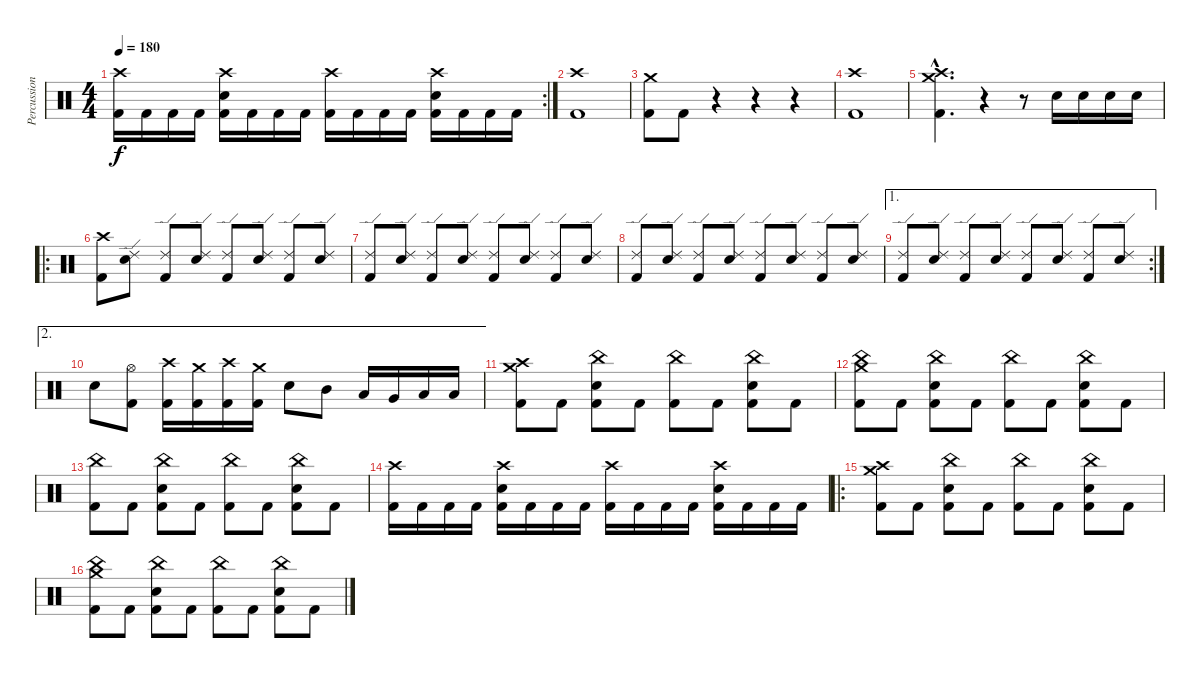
\track ("Percussions" "Percussion") {instrument percussion}
\staff {score}
\articulation defaults
\rc 2
\ts (4 4)
\tempo 180
\clef neutral
\ks c
("Crash high (hit)" "Kick (hit) 2").16{dy f} "Kick (hit) 2".16 "Kick (hit) 2".16 "Kick (hit) 2".16 ("Crash high (hit)" "Snare (hit) 2" "Kick (hit) 2").16 "Kick (hit) 2".16 "Kick (hit) 2".16 "Kick (hit) 2".16 ("Crash high (hit)" "Kick (hit) 2").16 "Kick (hit) 2".16 "Kick (hit) 2".16 "Kick (hit) 2".16 ("Crash high (hit)" "Snare (hit) 2" "Kick (hit) 2").16 "Kick (hit) 2".16 "Kick (hit) 2".16 "Kick (hit) 2".16 |
("Crash high (hit)" "Kick (hit) 2").1 |
("Crash medium (hit)" "Kick (hit) 2").8 "Kick (hit) 2".8 r.4 r.4 r.4 |
("Crash high (hit)" "Kick (hit) 2").1 |
("Crash medium (hit)"{hac} "Crash high (hit)"{hac} "Kick (hit) 2"{hac}).4{d} r.4 r.8 "Snare (hit) 2".16 "Snare (hit) 2".16 "Snare (hit) 2".16 "Snare (hit) 2".16 |
\ro
("Crash high (hit)" "Kick (hit) 2").8 ("Ride (edge) 2" "Snare (hit) 2").8 ("Ride (edge) 2" "Kick (hit) 2").8 ("Ride (edge) 2" "Snare (hit) 2").8 ("Ride (edge) 2" "Kick (hit) 2").8 ("Ride (edge) 2" "Snare (hit) 2").8 ("Ride (edge) 2" "Kick (hit) 2").8 ("Ride (edge) 2" "Snare (hit) 2").8 |
("Ride (edge) 2" "Kick (hit) 2").8 ("Ride (edge) 2" "Snare (hit) 2").8 ("Ride (edge) 2" "Kick (hit) 2").8 ("Ride (edge) 2" "Snare (hit) 2").8 ("Ride (edge) 2" "Kick (hit) 2").8 ("Ride (edge) 2" "Snare (hit) 2").8 ("Ride (edge) 2" "Kick (hit) 2").8 ("Ride (edge) 2" "Snare (hit) 2").8 |
("Ride (edge) 2" "Kick (hit) 2").8 ("Ride (edge) 2" "Snare (hit) 2").8 ("Ride (edge) 2" "Kick (hit) 2").8 ("Ride (edge) 2" "Snare (hit) 2").8 ("Ride (edge) 2" "Kick (hit) 2").8 ("Ride (edge) 2" "Snare (hit) 2").8 ("Ride (edge) 2" "Kick (hit) 2").8 ("Ride (edge) 2" "Snare (hit) 2").8 |
\ae 1
\rc 2
("Ride (edge) 2" "Kick (hit) 2").8 ("Ride (edge) 2" "Snare (hit) 2").8 ("Ride (edge) 2" "Kick (hit) 2").8 ("Ride (edge) 2" "Snare (hit) 2").8 ("Ride (edge) 2" "Kick (hit) 2").8 ("Ride (edge) 2" "Snare (hit) 2").8 ("Ride (edge) 2" "Kick (hit) 2").8 ("Ride (edge) 2" "Snare (hit) 2").8 |
\ae 2 "Snare (hit) 2".8
("Hi-Hat (open)" "Kick (hit) 2").8 ("Crash high (hit)" "Kick (hit) 2").16 ("Crash medium (hit)" "Kick (hit) 2").16 ("Crash high (hit)" "Kick (hit) 2").16 ("Crash medium (hit)" "Kick (hit) 2").16 "Snare (hit) 2".8 "Mid Tom (hit)".8 "Low Tom (hit)".16 "Very Low Tom (hit)".16 "Low Floor Tom (hit)".16 "Low Floor Tom (hit)".16 |
("Crash medium (hit)" "Crash high (hit)" "Kick (hit) 2").8 "Kick (hit) 2".8 ("China (hit)" "Snare (hit) 2" "Kick (hit) 2").8 "Kick (hit) 2".8 ("China (hit)" "Kick (hit) 2").8 "Kick (hit) 2".8 ("China (hit)" "Snare (hit) 2" "Kick (hit) 2").8 "Kick (hit) 2".8 |
("Crash medium (hit)" "China (hit)" "Kick (hit) 2").8 "Kick (hit) 2".8 ("China (hit)" "Snare (hit) 2" "Kick (hit) 2").8 "Kick (hit) 2".8 ("China (hit)" "Kick (hit) 2").8 "Kick (hit) 2".8 ("China (hit)" "Snare (hit) 2" "Kick (hit) 2").8 "Kick (hit) 2".8 |
("China (hit)" "Kick (hit) 2").8 "Kick (hit) 2".8 ("China (hit)" "Snare (hit) 2" "Kick (hit) 2").8 "Kick (hit) 2".8 ("China (hit)" "Kick (hit) 2").8 "Kick (hit) 2".8 ("China (hit)" "Snare (hit) 2" "Kick (hit) 2").8 "Kick (hit) 2".8 |
("Crash high (hit)" "Kick (hit) 2").16 "Kick (hit) 2".16 "Kick (hit) 2".16 "Kick (hit) 2".16 ("Crash high (hit)" "Snare (hit) 2" "Kick (hit) 2").16 "Kick (hit) 2".16 "Kick (hit) 2".16 "Kick (hit) 2".16 ("Crash high (hit)" "Kick (hit) 2").16 "Kick (hit) 2".16 "Kick (hit) 2".16 "Kick (hit) 2".16 ("Crash high (hit)" "Snare (hit) 2" "Kick (hit) 2").16 "Kick (hit) 2".16 "Kick (hit) 2".16 "Kick (hit) 2".16 |
\ro
("Crash medium (hit)" "Crash high (hit)" "Kick (hit) 2").8 "Kick (hit) 2".8 ("China (hit)" "Snare (hit) 2" "Kick (hit) 2").8 "Kick (hit) 2".8 ("China (hit)" "Kick (hit) 2").8 "Kick (hit) 2".8 ("China (hit)" "Snare (hit) 2" "Kick (hit) 2").8 "Kick (hit) 2".8 |
("Crash medium (hit)" "China (hit)" "Kick (hit) 2").8 "Kick (hit) 2".8 ("China (hit)" "Snare (hit) 2" "Kick (hit) 2").8 "Kick (hit) 2".8 ("China (hit)" "Kick (hit) 2").8 "Kick (hit) 2".8 ("China (hit)" "Snare (hit) 2" "Kick (hit) 2").8 "Kick (hit) 2".8
